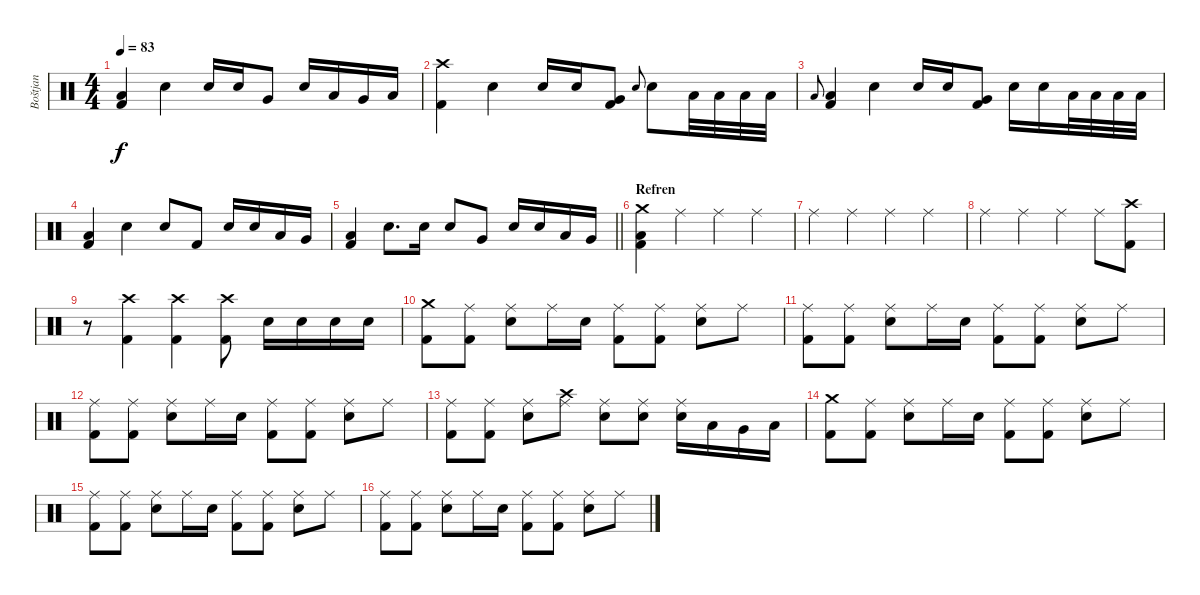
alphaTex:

\track ("Boštjan" "Boštjan") {instrument percussion}
\staff {score}
\articulation defaults
\ts (4 4)
\tempo 83
\clef neutral
\ks c
("Low Floor Tom (hit)" "Kick (hit) 2").4{dy f} "Snare (hit) 2".4 "Snare (hit) 2".16 "Snare (hit) 2".16 "Very Low Tom (hit)".8 "Snare (hit) 2".16 "Low Tom (hit)".16 "Very Low Tom (hit)".16 "Low Floor Tom (hit)".16 |
("Crash high (hit)" "Kick (hit) 2").4 "Snare (hit) 2".4 "Snare (hit) 2".16 "Snare (hit) 2".16 ("Very Low Tom (hit)" "Kick (hit) 2").8 "Snare (hit) 2".8{gr onbeat} "Snare (hit) 2".8 "Low Floor Tom (hit)".32 "Low Floor Tom (hit)".32 "Low Floor Tom (hit)".32 "Low Floor Tom (hit)".32 |
"Low Floor Tom (hit)".8{gr onbeat} ("Low Floor Tom (hit)" "Kick (hit) 2").4 "Snare (hit) 2".4 "Snare (hit) 2".16 "Snare (hit) 2".16 ("Very Low Tom (hit)" "Kick (hit) 2").8 "Snare (hit) 2".16 "Snare (hit) 2".16 "Low Floor Tom (hit)".32 "Low Floor Tom (hit)".32 "Low Floor Tom (hit)".32 "Low Floor Tom (hit)".32 |
("Low Floor Tom (hit)" "Kick (hit) 2").4 "Snare (hit) 2".4 "Snare (hit) 2".8 "Kick (hit) 2".8 "Snare (hit) 2".16 "Snare (hit) 2".16 "Low Tom (hit)".16 "Very Low Tom (hit)".16 |
\barLineRight lightlight
("Low Floor Tom (hit)" "Kick (hit) 2").4 "Snare (hit) 2".8{d} "Snare (hit) 2".16 "Snare (hit) 2".8 "Very Low Tom (hit)".8 "Snare (hit) 2".16 "Snare (hit) 2".16 "Low Tom (hit)".16 "Very Low Tom (hit)".16 |
\section ("" "Refren")
("Crash medium (hit)" "Low Floor Tom (hit)" "Kick (hit) 2").4 "Ride (middle)".4 "Ride (middle)".4 "Ride (middle)".4 |
"Ride (middle)".4 "Ride (middle)".4 "Ride (middle)".4 "Ride (middle)".4 |
"Ride (middle)".4 "Ride (middle)".4 "Ride (middle)".4 "Ride (middle)".8 ("Crash high (hit)" "Kick (hit) 2").8 |
r.8 ("Crash high (hit)" "Kick (hit) 2").4 ("Crash high (hit)" "Kick (hit) 2").4 ("Crash high (hit)" "Kick (hit) 2").8 "Snare (hit) 2".16 "Snare (hit) 2".16 "Snare (hit) 2".16 "Snare (hit) 2".16 |
("Crash medium (hit)" "Kick (hit) 2").8 ("Ride (middle)" "Kick (hit) 2").8 ("Ride (middle)" "Snare (hit) 2").8 "Ride (middle)".16 "Snare (hit) 2".16 ("Ride (middle)" "Kick (hit) 2").8 ("Ride (middle)" "Kick (hit) 2").8 ("Ride (middle)" "Snare (hit) 2").8 "Ride (middle)".8 |
("Ride (middle)" "Kick (hit) 2").8 ("Ride (middle)" "Kick (hit) 2").8 ("Ride (middle)" "Snare (hit) 2").8 "Ride (middle)".16 "Snare (hit) 2".16 ("Ride (middle)" "Kick (hit) 2").8 ("Ride (middle)" "Kick (hit) 2").8 ("Ride (middle)" "Snare (hit) 2").8 "Ride (middle)".8 |
("Ride (middle)" "Kick (hit) 2").8 ("Ride (middle)" "Kick (hit) 2").8 ("Ride (middle)" "Snare (hit) 2").8 "Ride (middle)".16 "Snare (hit) 2".16 ("Ride (middle)" "Kick (hit) 2").8 ("Ride (middle)" "Kick (hit) 2").8 ("Ride (middle)" "Snare (hit) 2").8 "Ride (middle)".8 |
("Ride (middle)" "Kick (hit) 2").8 ("Ride (middle)" "Kick (hit) 2").8 ("Ride (middle)" "Snare (hit) 2").8 ("Crash high (hit)" "Ride (middle)").8 ("Ride (middle)" "Snare (hit) 2").8 ("Ride (middle)" "Snare (hit) 2").8 ("Ride (middle)" "Snare (hit) 2").16 "Low Tom (hit)".16 "Very Low Tom (hit)".16 "Low Floor Tom (hit)".16 |
("Crash medium (hit)" "Kick (hit) 2").8 ("Ride (middle)" "Kick (hit) 2").8 ("Ride (middle)" "Snare (hit) 2").8 "Ride (middle)".16 "Snare (hit) 2".16 ("Ride (middle)" "Kick (hit) 2").8 ("Ride (middle)" "Kick (hit) 2").8 ("Ride (middle)" "Snare (hit) 2").8 "Ride (middle)".8 |
("Ride (middle)" "Kick (hit) 2").8 ("Ride (middle)" "Kick (hit) 2").8 ("Ride (middle)" "Snare (hit) 2").8 "Ride (middle)".16 "Snare (hit) 2".16 ("Ride (middle)" "Kick (hit) 2").8 ("Ride (middle)" "Kick (hit) 2").8 ("Ride (middle)" "Snare (hit) 2").8 "Ride (middle)".8 |
("Ride (middle)" "Kick (hit) 2").8 ("Ride (middle)" "Kick (hit) 2").8 ("Ride (middle)" "Snare (hit) 2").8 "Ride (middle)".16 "Snare (hit) 2".16 ("Ride (middle)" "Kick (hit) 2").8 ("Ride (middle)" "Kick (hit) 2").8 ("Ride (middle)" "Snare (hit) 2").8 "Ride (middle)".8
